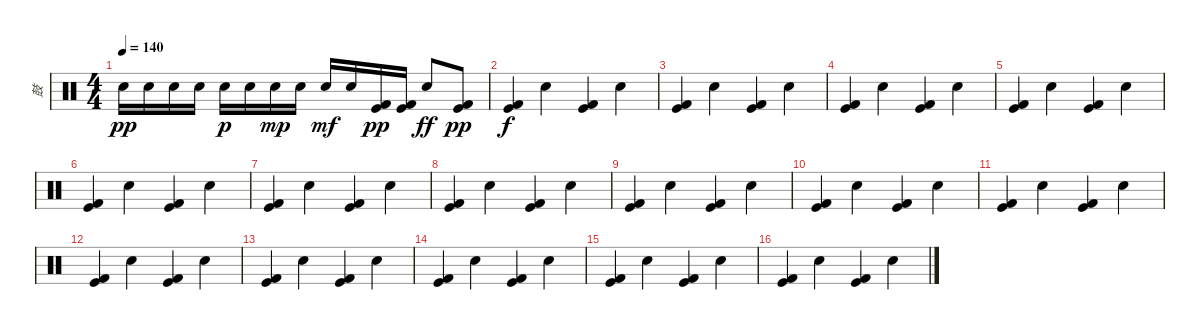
\track ("鼓" "鼓") {instrument percussion}
\staff {score}
\articulation defaults
\ts (4 4)
\tempo 140
\clef neutral
\ks c "Electric Snare (hit)".16{dy pp} "Electric Snare (hit)".16 "Electric Snare (hit)".16 "Electric Snare (hit)".16 "Electric Snare (hit)".16{dy p} "Electric Snare (hit)".16 "Electric Snare (hit)".16{dy mp} "Electric Snare (hit)".16 "Electric Snare (hit)".16{dy mf} "Electric Snare (hit)".16
("Kick (hit)" "Kick (hit) 2").16{dy pp} ("Kick (hit)" "Kick (hit) 2").16 "Snare (hit) 2".8{dy ff} ("Kick (hit)" "Kick (hit) 2").8{dy pp} |
("Kick (hit)" "Kick (hit) 2").4{dy f} "Snare (hit) 2".4 ("Kick (hit)" "Kick (hit) 2").4 "Snare (hit) 2".4 |
("Kick (hit)" "Kick (hit) 2").4 "Snare (hit) 2".4 ("Kick (hit)" "Kick (hit) 2").4 "Snare (hit) 2".4 |
("Kick (hit)" "Kick (hit) 2").4 "Snare (hit) 2".4 ("Kick (hit)" "Kick (hit) 2").4 "Snare (hit) 2".4 |
("Kick (hit)" "Kick (hit) 2").4 "Snare (hit) 2".4 ("Kick (hit)" "Kick (hit) 2").4 "Snare (hit) 2".4 |
("Kick (hit)" "Kick (hit) 2").4 "Snare (hit) 2".4 ("Kick (hit)" "Kick (hit) 2").4 "Snare (hit) 2".4 |
("Kick (hit)" "Kick (hit) 2").4 "Snare (hit) 2".4 ("Kick (hit)" "Kick (hit) 2").4 "Snare (hit) 2".4 |
("Kick (hit)" "Kick (hit) 2").4 "Snare (hit) 2".4 ("Kick (hit)" "Kick (hit) 2").4 "Snare (hit) 2".4 |
("Kick (hit)" "Kick (hit) 2").4 "Snare (hit) 2".4 ("Kick (hit)" "Kick (hit) 2").4 "Snare (hit) 2".4 |
("Kick (hit)" "Kick (hit) 2").4 "Snare (hit) 2".4 ("Kick (hit)" "Kick (hit) 2").4 "Snare (hit) 2".4 |
("Kick (hit)" "Kick (hit) 2").4 "Snare (hit) 2".4 ("Kick (hit)" "Kick (hit) 2").4 "Snare (hit) 2".4 |
("Kick (hit)" "Kick (hit) 2").4 "Snare (hit) 2".4 ("Kick (hit)" "Kick (hit) 2").4 "Snare (hit) 2".4 |
("Kick (hit)" "Kick (hit) 2").4 "Snare (hit) 2".4 ("Kick (hit)" "Kick (hit) 2").4 "Snare (hit) 2".4 |
("Kick (hit)" "Kick (hit) 2").4 "Snare (hit) 2".4 ("Kick (hit)" "Kick (hit) 2").4 "Snare (hit) 2".4 |
("Kick (hit)" "Kick (hit) 2").4 "Snare (hit) 2".4 ("Kick (hit)" "Kick (hit) 2").4 "Snare (hit) 2".4 |
("Kick (hit)" "Kick (hit) 2").4 "Snare (hit) 2".4 ("Kick (hit)" "Kick (hit) 2").4 "Snare (hit) 2".4
